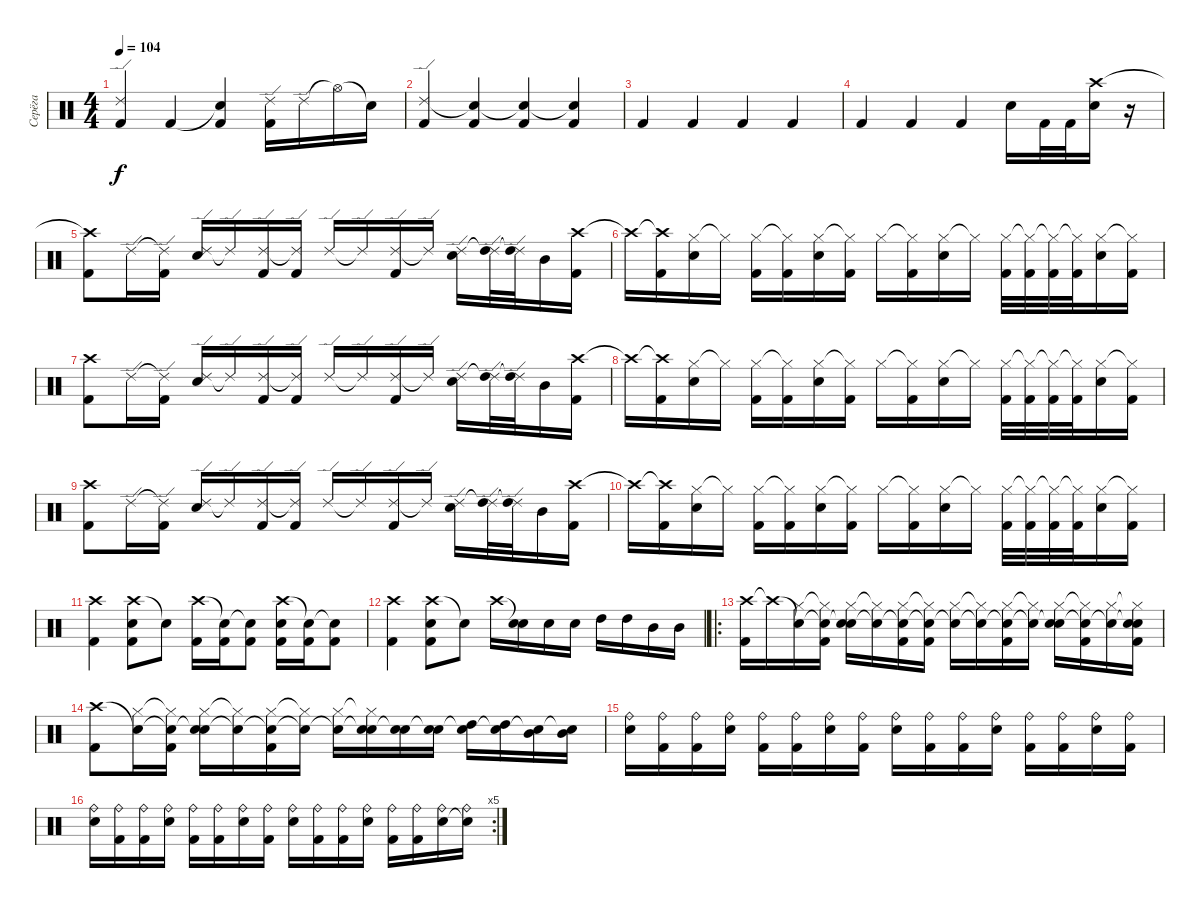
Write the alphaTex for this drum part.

\track ("Серёга" "Серёга") {instrument percussion}
\staff {score}
\articulation defaults
\ts (4 4)
\tempo 104
\clef neutral
\ks c
("Ride (edge) 2" "Kick (hit) 2").4{dy f} "Kick (hit) 2".4 ("Snare (hit)"{t} "Kick (hit) 2").4 ("Ride (edge) 2" "Kick (hit) 2").16 "Ride (edge) 2".16 "Hi-Hat (open)"{t}.16 "Snare (hit)"{t}.16 |
("Ride (edge) 2" "Kick (hit) 2").4 ("Snare (hit)"{t} "Kick (hit) 2").4 ("Snare (hit)"{t} "Kick (hit) 2").4 ("Snare (hit)"{t} "Kick (hit) 2").4 |
"Kick (hit) 2".4 "Kick (hit) 2".4 "Kick (hit) 2".4 "Kick (hit) 2".4 |
"Kick (hit) 2".4 "Kick (hit) 2".4 "Kick (hit) 2".4 "Electric Snare (hit)".16 "Kick (hit) 2".32 "Kick (hit) 2".32 ("Crash high (hit)" "Electric Snare (hit)").16 r.16 |
("Crash high (hit)"{t} "Kick (hit) 2").8 "Ride (edge) 2".16 ("Ride (edge) 2"{t} "Kick (hit) 2").16 ("Ride (edge) 2" "Electric Snare (hit)").16 "Ride (edge) 2"{t}.16 ("Ride (edge) 2" "Kick (hit) 2").16 ("Ride (edge) 2"{t} "Kick (hit) 2").16 "Ride (edge) 2".16 "Ride (edge) 2"{t}.16 ("Ride (edge) 2" "Kick (hit) 2").16 "Ride (edge) 2"{t}.16 ("Ride (edge) 2" "Electric Snare (hit)").16 ("Ride (edge) 2"{t} "High Tom (hit)").32 ("Ride (edge) 2"{t} "High Tom (hit)").32 "Mid Tom (hit)".16 ("Crash high (hit)" "Kick (hit) 2").16 |
"Crash high (hit)"{t}.16 ("Crash high (hit)"{t} "Kick (hit) 2").16 ("Hi-Hat (closed)" "Electric Snare (hit)").16 "Hi-Hat (closed)"{t}.16 ("Hi-Hat (closed)" "Kick (hit) 2").16 ("Hi-Hat (closed)"{t} "Kick (hit) 2").16 ("Hi-Hat (closed)" "Electric Snare (hit)").16 ("Hi-Hat (closed)"{t} "Kick (hit) 2").16 "Hi-Hat (closed)".16 ("Hi-Hat (closed)"{t} "Kick (hit) 2").16 ("Hi-Hat (closed)" "Electric Snare (hit)").16 "Hi-Hat (closed)"{t}.16 ("Hi-Hat (closed)" "Kick (hit) 2").32 ("Hi-Hat (closed)"{t} "Kick (hit) 2").32 ("Hi-Hat (closed)"{t} "Kick (hit) 2").32 ("Hi-Hat (closed)"{t} "Kick (hit) 2").32 ("Hi-Hat (closed)" "Electric Snare (hit)").16 ("Hi-Hat (closed)"{t} "Kick (hit) 2").16 |
("Crash high (hit)" "Kick (hit) 2").8 "Ride (edge) 2".16 ("Ride (edge) 2"{t} "Kick (hit) 2").16 ("Ride (edge) 2" "Electric Snare (hit)").16 "Ride (edge) 2"{t}.16 ("Ride (edge) 2" "Kick (hit) 2").16 ("Ride (edge) 2"{t} "Kick (hit) 2").16 "Ride (edge) 2".16 "Ride (edge) 2"{t}.16 ("Ride (edge) 2" "Kick (hit) 2").16 "Ride (edge) 2"{t}.16 ("Ride (edge) 2" "Electric Snare (hit)").16 ("Ride (edge) 2"{t} "High Tom (hit)").32 ("Ride (edge) 2"{t} "High Tom (hit)").32 "Mid Tom (hit)".16 ("Crash high (hit)" "Kick (hit) 2").16 |
"Crash high (hit)"{t}.16 ("Crash high (hit)"{t} "Kick (hit) 2").16 ("Hi-Hat (closed)" "Electric Snare (hit)").16 "Hi-Hat (closed)"{t}.16 ("Hi-Hat (closed)" "Kick (hit) 2").16 ("Hi-Hat (closed)"{t} "Kick (hit) 2").16 ("Hi-Hat (closed)" "Electric Snare (hit)").16 ("Hi-Hat (closed)"{t} "Kick (hit) 2").16 "Hi-Hat (closed)".16 ("Hi-Hat (closed)"{t} "Kick (hit) 2").16 ("Hi-Hat (closed)" "Electric Snare (hit)").16 "Hi-Hat (closed)"{t}.16 ("Hi-Hat (closed)" "Kick (hit) 2").32 ("Hi-Hat (closed)"{t} "Kick (hit) 2").32 ("Hi-Hat (closed)"{t} "Kick (hit) 2").32 ("Hi-Hat (closed)"{t} "Kick (hit) 2").32 ("Hi-Hat (closed)" "Electric Snare (hit)").16 ("Hi-Hat (closed)"{t} "Kick (hit) 2").16 |
("Crash high (hit)" "Kick (hit) 2").8 "Ride (edge) 2".16 ("Ride (edge) 2"{t} "Kick (hit) 2").16 ("Ride (edge) 2" "Electric Snare (hit)").16 "Ride (edge) 2"{t}.16 ("Ride (edge) 2" "Kick (hit) 2").16 ("Ride (edge) 2"{t} "Kick (hit) 2").16 "Ride (edge) 2".16 "Ride (edge) 2"{t}.16 ("Ride (edge) 2" "Kick (hit) 2").16 "Ride (edge) 2"{t}.16 ("Ride (edge) 2" "Electric Snare (hit)").16 ("Ride (edge) 2"{t} "High Tom (hit)").32 ("Ride (edge) 2"{t} "High Tom (hit)").32 "Mid Tom (hit)".16 ("Crash high (hit)" "Kick (hit) 2").16 |
"Crash high (hit)"{t}.16 ("Crash high (hit)"{t} "Kick (hit) 2").16 ("Hi-Hat (closed)" "Electric Snare (hit)").16 "Hi-Hat (closed)"{t}.16 ("Hi-Hat (closed)" "Kick (hit) 2").16 ("Hi-Hat (closed)"{t} "Kick (hit) 2").16 ("Hi-Hat (closed)" "Electric Snare (hit)").16 ("Hi-Hat (closed)"{t} "Kick (hit) 2").16 "Hi-Hat (closed)".16 ("Hi-Hat (closed)"{t} "Kick (hit) 2").16 ("Hi-Hat (closed)" "Electric Snare (hit)").16 "Hi-Hat (closed)"{t}.16 ("Hi-Hat (closed)" "Kick (hit) 2").32 ("Hi-Hat (closed)"{t} "Kick (hit) 2").32 ("Hi-Hat (closed)"{t} "Kick (hit) 2").32 ("Hi-Hat (closed)"{t} "Kick (hit) 2").32 ("Hi-Hat (closed)" "Electric Snare (hit)").16 ("Hi-Hat (closed)"{t} "Kick (hit) 2").16 |
("Crash high (hit)" "Kick (hit) 2").4 ("Crash high (hit)" "Electric Snare (hit)" "Kick (hit) 2").8 "Snare (hit)"{t}.8 ("Crash high (hit)" "Kick (hit) 2").16 ("Snare (hit)"{t} "Kick (hit) 2").16 ("Snare (hit)"{t} "Kick (hit) 2").8 ("Crash high (hit)" "Electric Snare (hit)" "Kick (hit) 2").16 ("Snare (hit)"{t} "Kick (hit) 2").16 ("Snare (hit)"{t} "Kick (hit) 2").8 |
("Crash high (hit)" "Kick (hit) 2").4 ("Crash high (hit)" "Electric Snare (hit)" "Kick (hit) 2").8 "Snare (hit)"{t}.8 "Crash high (hit)".16 ("Snare (hit)"{t} "Electric Snare (hit)").16 "Electric Snare (hit)".16 "Electric Snare (hit)".16 "High Tom (hit)".16 "High Tom (hit)".16 "Mid Tom (hit)".16 "Mid Tom (hit)".16 |
\ro
("Crash high (hit)" "Kick (hit) 2").16 "Crash high (hit)"{t}.16 ("Snare (hit)"{t} "Hi-Hat (closed)").16 ("Snare (hit)"{t} "Hi-Hat (closed)"{t} "Kick (hit) 2").16 ("Snare (hit)"{t} "Hi-Hat (closed)" "Electric Snare (hit)").16 ("Snare (hit)"{t} "Hi-Hat (closed)"{t}).16 ("Snare (hit)"{t} "Hi-Hat (closed)" "Kick (hit) 2").16 ("Snare (hit)"{t} "Hi-Hat (closed)"{t} "Kick (hit) 2").16 ("Snare (hit)"{t} "Hi-Hat (closed)").16 ("Snare (hit)"{t} "Hi-Hat (closed)"{t}).16 ("Snare (hit)"{t} "Hi-Hat (closed)" "Kick (hit) 2").16 ("Snare (hit)"{t} "Hi-Hat (closed)"{t}).16 ("Snare (hit)"{t} "Hi-Hat (closed)" "Electric Snare (hit)").16 ("Snare (hit)"{t} "Hi-Hat (closed)"{t} "Kick (hit) 2").16 ("Snare (hit)"{t} "Hi-Hat (closed)").16 ("Snare (hit)"{t} "Hi-Hat (closed)"{t} "Kick (hit) 2" "Electric Snare (hit)").16 |
("Crash high (hit)" "Kick (hit) 2").8 ("Snare (hit)"{t} "Hi-Hat (closed)").16 ("Snare (hit)"{t} "Hi-Hat (closed)"{t} "Kick (hit) 2").16 ("Snare (hit)"{t} "Hi-Hat (closed)" "Electric Snare (hit)").16 ("Snare (hit)"{t} "Hi-Hat (closed)"{t}).16 ("Snare (hit)"{t} "Hi-Hat (closed)" "Kick (hit) 2").16 ("Snare (hit)"{t} "Hi-Hat (closed)"{t}).16 ("Snare (hit)"{t} "Hi-Hat (closed)").16 ("Snare (hit)"{t} "Hi-Hat (closed)"{t} "Electric Snare (hit)").16 ("Snare (hit)"{t} "Electric Snare (hit)").16 ("Snare (hit)"{t} "Electric Snare (hit)").16 ("Snare (hit)"{t} "High Tom (hit)").16 ("Snare (hit)"{t} "High Tom (hit)").16 ("Snare (hit)"{t} "Mid Tom (hit)").16 ("Snare (hit)"{t} "Mid Tom (hit)").16 |
("Ride (bell)" "Electric Snare (hit)").16 ("Ride (bell)" "Kick (hit) 2").16 ("Ride (bell)" "Kick (hit) 2").16 ("Ride (bell)" "Electric Snare (hit)").16 ("Ride (bell)" "Kick (hit) 2").16 ("Ride (bell)" "Kick (hit) 2").16 ("Ride (bell)" "Electric Snare (hit)").16 ("Ride (bell)" "Kick (hit) 2").16 ("Ride (bell)" "Electric Snare (hit)").16 ("Ride (bell)" "Kick (hit) 2").16 ("Ride (bell)" "Kick (hit) 2").16 ("Ride (bell)" "Electric Snare (hit)").16 ("Ride (bell)" "Kick (hit) 2").16 ("Ride (bell)" "Kick (hit) 2").16 ("Ride (bell)" "Electric Snare (hit)").16 ("Ride (bell)" "Kick (hit) 2").16 |
\rc 5
("Ride (bell)" "Electric Snare (hit)").16 ("Ride (bell)" "Kick (hit) 2").16 ("Ride (bell)" "Kick (hit) 2").16 ("Ride (bell)" "Electric Snare (hit)").16 ("Ride (bell)" "Kick (hit) 2").16 ("Ride (bell)" "Kick (hit) 2").16 ("Ride (bell)" "Electric Snare (hit)").16 ("Ride (bell)" "Kick (hit) 2").16 ("Ride (bell)" "Electric Snare (hit)").16 ("Ride (bell)" "Kick (hit) 2").16 ("Ride (bell)" "Kick (hit) 2").16 ("Ride (bell)" "Electric Snare (hit)").16 ("Ride (bell)" "Kick (hit) 2").16 ("Ride (bell)" "Kick (hit) 2").16 ("Ride (bell)" "Electric Snare (hit)").16 ("Ride (bell)" "Snare (hit)"{t}).16
